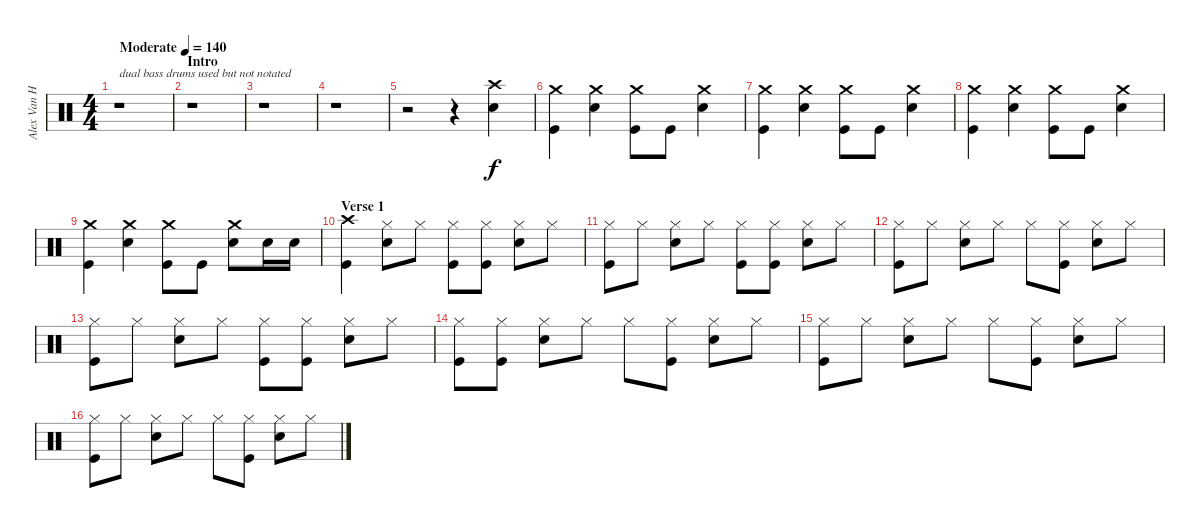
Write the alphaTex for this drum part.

\track ("Alex Van Halen (Drums)" "Alex Van H") {instrument percussion}
\staff {score}
\articulation defaults
\ts (4 4)
\tempo (140 "Moderate")
\clef neutral
\ks c
r.1{txt "dual bass drums used but not notated" dy f} |
\section ("" "Intro")
r.1 |
r.1 |
r.1 |
r.2 r.4 ("Crash high (hit)" "Snare (hit) 2").4 |
("Crash medium (hit)" "Kick (hit)").4 ("Crash medium (hit)" "Snare (hit) 2").4 ("Crash medium (hit)" "Kick (hit)").8 "Kick (hit)".8 ("Crash medium (hit)" "Snare (hit) 2").4 |
("Crash medium (hit)" "Kick (hit)").4 ("Crash medium (hit)" "Snare (hit) 2").4 ("Crash medium (hit)" "Kick (hit)").8 "Kick (hit)".8 ("Crash medium (hit)" "Snare (hit) 2").4 |
("Crash medium (hit)" "Kick (hit)").4 ("Crash medium (hit)" "Snare (hit) 2").4 ("Crash medium (hit)" "Kick (hit)").8 "Kick (hit)".8 ("Crash medium (hit)" "Snare (hit) 2").4 |
("Crash medium (hit)" "Kick (hit)").4 ("Crash medium (hit)" "Snare (hit) 2").4 ("Crash medium (hit)" "Kick (hit)").8 "Kick (hit)".8 ("Crash medium (hit)" "Snare (hit) 2").8 "Snare (hit) 2".16 "Snare (hit) 2".16 |
\section ("" "Verse 1")
("Crash high (hit)" "Kick (hit)").4 ("Hi-Hat (closed)" "Snare (hit) 2").8 "Hi-Hat (closed)".8 ("Hi-Hat (closed)" "Kick (hit)").8 ("Hi-Hat (closed)" "Kick (hit)").8 ("Hi-Hat (closed)" "Snare (hit) 2").8 "Hi-Hat (closed)".8 |
("Hi-Hat (closed)" "Kick (hit)").8 "Hi-Hat (closed)".8 ("Hi-Hat (closed)" "Snare (hit) 2").8 "Hi-Hat (closed)".8 ("Hi-Hat (closed)" "Kick (hit)").8 ("Hi-Hat (closed)" "Kick (hit)").8 ("Hi-Hat (closed)" "Snare (hit) 2").8 "Hi-Hat (closed)".8 |
("Hi-Hat (closed)" "Kick (hit)").8 "Hi-Hat (closed)".8 ("Hi-Hat (closed)" "Snare (hit) 2").8 "Hi-Hat (closed)".8 "Hi-Hat (closed)".8 ("Hi-Hat (closed)" "Kick (hit)").8 ("Hi-Hat (closed)" "Snare (hit) 2").8 "Hi-Hat (closed)".8 |
("Hi-Hat (closed)" "Kick (hit)").8 "Hi-Hat (closed)".8 ("Hi-Hat (closed)" "Snare (hit) 2").8 "Hi-Hat (closed)".8 ("Hi-Hat (closed)" "Kick (hit)").8 ("Hi-Hat (closed)" "Kick (hit)").8 ("Hi-Hat (closed)" "Snare (hit) 2").8 "Hi-Hat (closed)".8 |
("Hi-Hat (closed)" "Kick (hit)").8 ("Hi-Hat (closed)" "Kick (hit)").8 ("Hi-Hat (closed)" "Snare (hit) 2").8 "Hi-Hat (closed)".8 "Hi-Hat (closed)".8 ("Hi-Hat (closed)" "Kick (hit)").8 ("Hi-Hat (closed)" "Snare (hit) 2").8 "Hi-Hat (closed)".8 |
("Hi-Hat (closed)" "Kick (hit)").8 "Hi-Hat (closed)".8 ("Hi-Hat (closed)" "Snare (hit) 2").8 "Hi-Hat (closed)".8 "Hi-Hat (closed)".8 ("Hi-Hat (closed)" "Kick (hit)").8 ("Hi-Hat (closed)" "Snare (hit) 2").8 "Hi-Hat (closed)".8 |
("Hi-Hat (closed)" "Kick (hit)").8 "Hi-Hat (closed)".8 ("Hi-Hat (closed)" "Snare (hit) 2").8 "Hi-Hat (closed)".8 "Hi-Hat (closed)".8 ("Hi-Hat (closed)" "Kick (hit)").8 ("Hi-Hat (closed)" "Snare (hit) 2").8 "Hi-Hat (closed)".8
